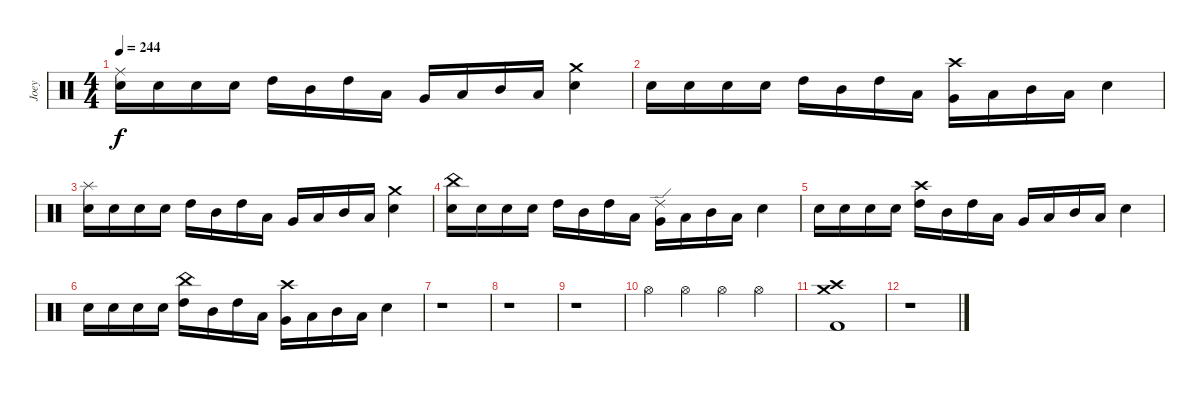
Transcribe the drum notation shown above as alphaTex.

\track ("Joey" "Joey") {instrument percussion}
\staff {score}
\articulation defaults
\ts (4 4)
\tempo 244
\clef neutral
\ks c
("Ride (middle)" "Snare (hit) 2").16{dy f} "Snare (hit) 2".16 "Snare (hit) 2".16 "Snare (hit) 2".16 "High Tom (hit)".16 "Mid Tom (hit)".16 "High Tom (hit)".16 "Low Tom (hit)".16 "Very Low Tom (hit)".16 "Low Floor Tom (hit)".16 "Mid Tom (hit)".16 "Low Floor Tom (hit)".16 ("Crash medium (hit)" "Snare (hit) 2").4 |
"Snare (hit) 2".16 "Snare (hit) 2".16 "Snare (hit) 2".16 "Snare (hit) 2".16 "High Tom (hit)".16 "Mid Tom (hit)".16 "High Tom (hit)".16 "Low Tom (hit)".16 ("Crash high (hit)" "Very Low Tom (hit)").16 "Low Floor Tom (hit)".16 "Mid Tom (hit)".16 "Low Floor Tom (hit)".16 "Snare (hit) 2".4 |
("Splash (hit)" "Snare (hit) 2").16 "Snare (hit) 2".16 "Snare (hit) 2".16 "Snare (hit) 2".16 "High Tom (hit)".16 "Mid Tom (hit)".16 "High Tom (hit)".16 "Low Tom (hit)".16 "Very Low Tom (hit)".16 "Low Floor Tom (hit)".16 "Mid Tom (hit)".16 "Low Floor Tom (hit)".16 ("Crash medium (hit)" "Snare (hit) 2").4 |
("China (hit)" "Snare (hit) 2").16 "Snare (hit) 2".16 "Snare (hit) 2".16 "Snare (hit) 2".16 "High Tom (hit)".16 "Mid Tom (hit)".16 "High Tom (hit)".16 "Low Tom (hit)".16 ("Ride (edge) 2" "Very Low Tom (hit)").16 "Low Floor Tom (hit)".16 "Mid Tom (hit)".16 "Low Floor Tom (hit)".16 "Snare (hit) 2".4 |
"Snare (hit) 2".16 "Snare (hit) 2".16 "Snare (hit) 2".16 "Snare (hit) 2".16 ("Crash high (hit)" "High Tom (hit)").16 "Mid Tom (hit)".16 "High Tom (hit)".16 "Low Tom (hit)".16 "Very Low Tom (hit)".16 "Low Floor Tom (hit)".16 "Mid Tom (hit)".16 "Low Floor Tom (hit)".16 "Snare (hit) 2".4 |
"Snare (hit) 2".16 "Snare (hit) 2".16 "Snare (hit) 2".16 "Snare (hit) 2".16 ("China (hit)" "High Tom (hit)").16 "Mid Tom (hit)".16 "High Tom (hit)".16 "Low Tom (hit)".16 ("Crash high (hit)" "Very Low Tom (hit)").16 "Low Floor Tom (hit)".16 "Mid Tom (hit)".16 "Low Floor Tom (hit)".16 "Snare (hit) 2".4 |
r.1 |
r.1 |
r.1 |
"Hi-Hat (open)".4 "Hi-Hat (open)".4 "Hi-Hat (open)".4 "Hi-Hat (open)".4 |
("Crash high (hit)" "Crash medium (hit)" "Kick (hit) 2").1 |
r.1
